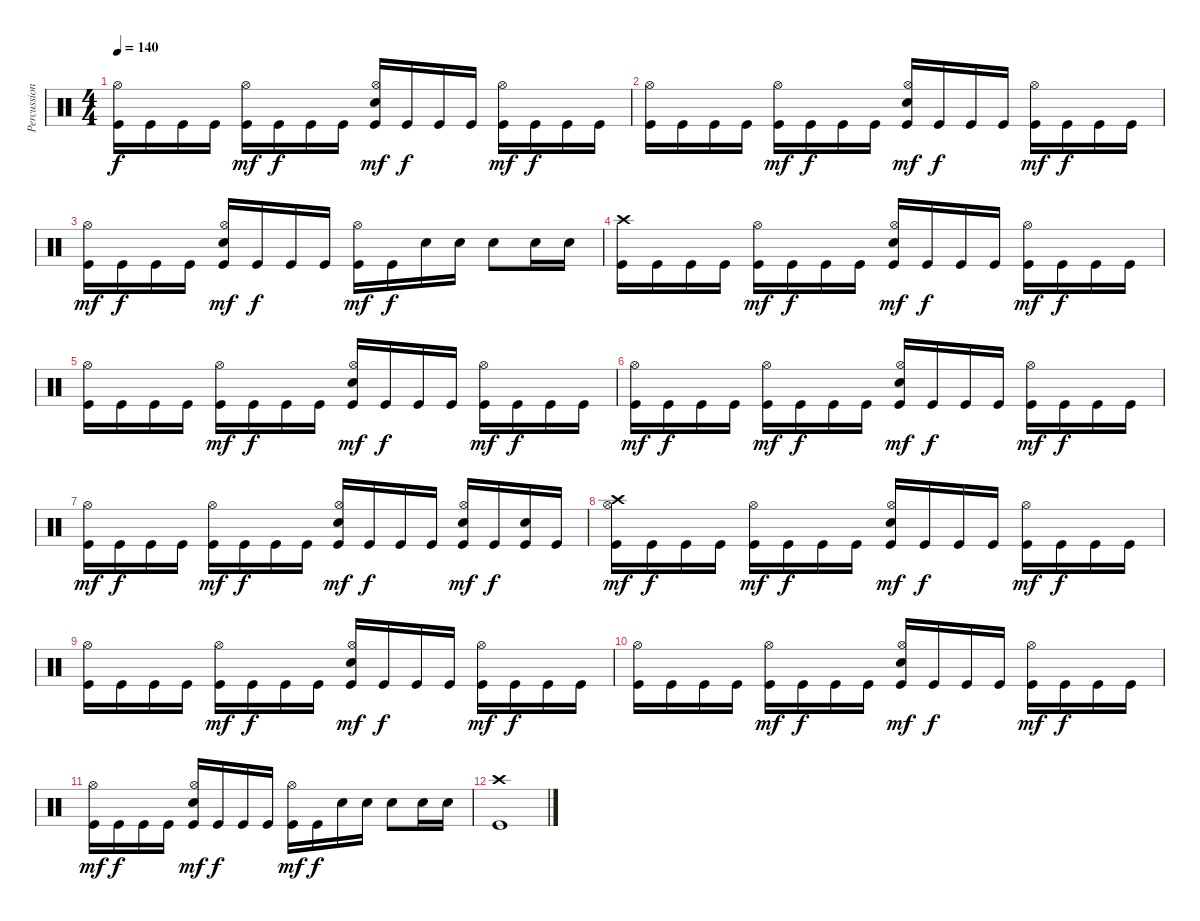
\track ("Percussion" "Percussion") {instrument percussion}
\staff {score}
\articulation defaults
\ts (4 4)
\tempo 140
\clef neutral
\ks c
("Kick (hit)" "Hi-Hat (open)").16{dy f} "Kick (hit)".16 "Kick (hit)".16 "Kick (hit)".16 ("Kick (hit)" "Hi-Hat (open)").16{dy mf} "Kick (hit)".16{dy f} "Kick (hit)".16 "Kick (hit)".16 ("Kick (hit)" "Electric Snare (hit)" "Hi-Hat (open)").16{dy mf} "Kick (hit)".16{dy f} "Kick (hit)".16 "Kick (hit)".16 ("Kick (hit)" "Hi-Hat (open)").16{dy mf} "Kick (hit)".16{dy f} "Kick (hit)".16 "Kick (hit)".16 |
("Kick (hit)" "Hi-Hat (open)").16 "Kick (hit)".16 "Kick (hit)".16 "Kick (hit)".16 ("Kick (hit)" "Hi-Hat (open)").16{dy mf} "Kick (hit)".16{dy f} "Kick (hit)".16 "Kick (hit)".16 ("Kick (hit)" "Electric Snare (hit)" "Hi-Hat (open)").16{dy mf} "Kick (hit)".16{dy f} "Kick (hit)".16 "Kick (hit)".16 ("Kick (hit)" "Hi-Hat (open)").16{dy mf} "Kick (hit)".16{dy f} "Kick (hit)".16 "Kick (hit)".16 |
("Kick (hit)" "Hi-Hat (open)").16{dy mf} "Kick (hit)".16{dy f} "Kick (hit)".16 "Kick (hit)".16 ("Kick (hit)" "Electric Snare (hit)" "Hi-Hat (open)").16{dy mf} "Kick (hit)".16{dy f} "Kick (hit)".16 "Kick (hit)".16 ("Kick (hit)" "Hi-Hat (open)").16{dy mf} "Kick (hit)".16{dy f} "Electric Snare (hit)".16 "Electric Snare (hit)".16 "Electric Snare (hit)".8 "Electric Snare (hit)".16 "Electric Snare (hit)".16 |
("Kick (hit)" "Crash high (hit)").16 "Kick (hit)".16 "Kick (hit)".16 "Kick (hit)".16 ("Kick (hit)" "Hi-Hat (open)").16{dy mf} "Kick (hit)".16{dy f} "Kick (hit)".16 "Kick (hit)".16 ("Kick (hit)" "Electric Snare (hit)" "Hi-Hat (open)").16{dy mf} "Kick (hit)".16{dy f} "Kick (hit)".16 "Kick (hit)".16 ("Kick (hit)" "Hi-Hat (open)").16{dy mf} "Kick (hit)".16{dy f} "Kick (hit)".16 "Kick (hit)".16 |
("Kick (hit)" "Hi-Hat (open)").16 "Kick (hit)".16 "Kick (hit)".16 "Kick (hit)".16 ("Kick (hit)" "Hi-Hat (open)").16{dy mf} "Kick (hit)".16{dy f} "Kick (hit)".16 "Kick (hit)".16 ("Kick (hit)" "Electric Snare (hit)" "Hi-Hat (open)").16{dy mf} "Kick (hit)".16{dy f} "Kick (hit)".16 "Kick (hit)".16 ("Kick (hit)" "Hi-Hat (open)").16{dy mf} "Kick (hit)".16{dy f} "Kick (hit)".16 "Kick (hit)".16 |
("Kick (hit)" "Hi-Hat (open)").16{dy mf} "Kick (hit)".16{dy f} "Kick (hit)".16 "Kick (hit)".16 ("Kick (hit)" "Hi-Hat (open)").16{dy mf} "Kick (hit)".16{dy f} "Kick (hit)".16 "Kick (hit)".16 ("Kick (hit)" "Electric Snare (hit)" "Hi-Hat (open)").16{dy mf} "Kick (hit)".16{dy f} "Kick (hit)".16 "Kick (hit)".16 ("Kick (hit)" "Hi-Hat (open)").16{dy mf} "Kick (hit)".16{dy f} "Kick (hit)".16 "Kick (hit)".16 |
("Kick (hit)" "Hi-Hat (open)").16{dy mf} "Kick (hit)".16{dy f} "Kick (hit)".16 "Kick (hit)".16 ("Kick (hit)" "Hi-Hat (open)").16{dy mf} "Kick (hit)".16{dy f} "Kick (hit)".16 "Kick (hit)".16 ("Kick (hit)" "Electric Snare (hit)" "Hi-Hat (open)").16{dy mf} "Kick (hit)".16{dy f} "Kick (hit)".16 "Kick (hit)".16 ("Kick (hit)" "Electric Snare (hit)" "Hi-Hat (open)").16{dy mf} "Kick (hit)".16{dy f} ("Kick (hit)" "Electric Snare (hit)").16 "Kick (hit)".16 |
("Kick (hit)" "Hi-Hat (open)" "Crash high (hit)").16{dy mf} "Kick (hit)".16{dy f} "Kick (hit)".16 "Kick (hit)".16 ("Kick (hit)" "Hi-Hat (open)").16{dy mf} "Kick (hit)".16{dy f} "Kick (hit)".16 "Kick (hit)".16 ("Kick (hit)" "Electric Snare (hit)" "Hi-Hat (open)").16{dy mf} "Kick (hit)".16{dy f} "Kick (hit)".16 "Kick (hit)".16 ("Kick (hit)" "Hi-Hat (open)").16{dy mf} "Kick (hit)".16{dy f} "Kick (hit)".16 "Kick (hit)".16 |
("Kick (hit)" "Hi-Hat (open)").16 "Kick (hit)".16 "Kick (hit)".16 "Kick (hit)".16 ("Kick (hit)" "Hi-Hat (open)").16{dy mf} "Kick (hit)".16{dy f} "Kick (hit)".16 "Kick (hit)".16 ("Kick (hit)" "Electric Snare (hit)" "Hi-Hat (open)").16{dy mf} "Kick (hit)".16{dy f} "Kick (hit)".16 "Kick (hit)".16 ("Kick (hit)" "Hi-Hat (open)").16{dy mf} "Kick (hit)".16{dy f} "Kick (hit)".16 "Kick (hit)".16 |
("Kick (hit)" "Hi-Hat (open)").16 "Kick (hit)".16 "Kick (hit)".16 "Kick (hit)".16 ("Kick (hit)" "Hi-Hat (open)").16{dy mf} "Kick (hit)".16{dy f} "Kick (hit)".16 "Kick (hit)".16 ("Kick (hit)" "Electric Snare (hit)" "Hi-Hat (open)").16{dy mf} "Kick (hit)".16{dy f} "Kick (hit)".16 "Kick (hit)".16 ("Kick (hit)" "Hi-Hat (open)").16{dy mf} "Kick (hit)".16{dy f} "Kick (hit)".16 "Kick (hit)".16 |
("Kick (hit)" "Hi-Hat (open)").16{dy mf} "Kick (hit)".16{dy f} "Kick (hit)".16 "Kick (hit)".16 ("Kick (hit)" "Electric Snare (hit)" "Hi-Hat (open)").16{dy mf} "Kick (hit)".16{dy f} "Kick (hit)".16 "Kick (hit)".16 ("Kick (hit)" "Hi-Hat (open)").16{dy mf} "Kick (hit)".16{dy f} "Electric Snare (hit)".16 "Electric Snare (hit)".16 "Electric Snare (hit)".8 "Electric Snare (hit)".16 "Electric Snare (hit)".16 |
("Kick (hit)" "Crash high (hit)").1
